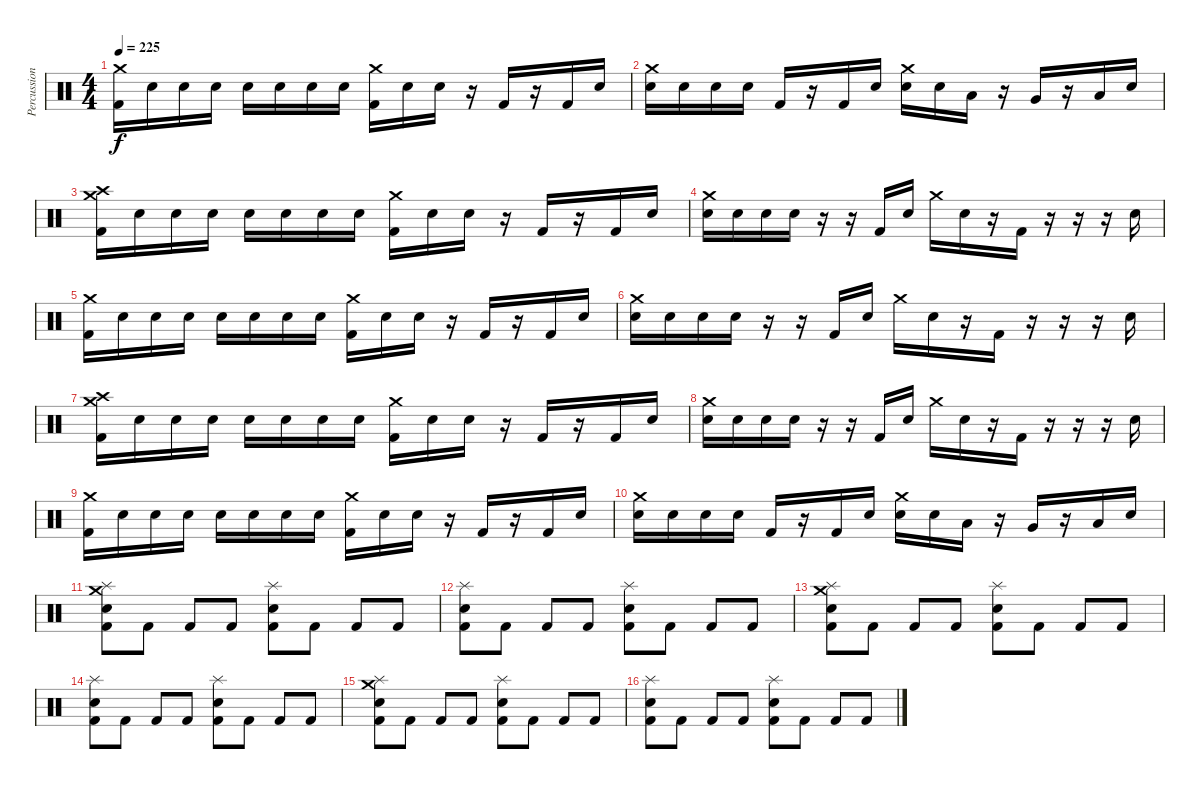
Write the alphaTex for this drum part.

\track ("Percussion" "Percussion") {instrument percussion}
\staff {score}
\articulation defaults
\ts (4 4)
\tempo 225
\clef neutral
\ks c
("Crash medium (hit)" "Kick (hit) 2").16{dy f} "Snare (hit)".16 "Snare (hit)".16 "Snare (hit)".16 "Snare (hit)".16 "Snare (hit)".16 "Snare (hit)".16 "Snare (hit)".16 ("Crash medium (hit)" "Kick (hit) 2").16 "Snare (hit)".16 "Snare (hit)".16 r.16 "Kick (hit) 2".16 r.16 "Kick (hit) 2".16 "Snare (hit)".16 |
("Crash medium (hit)" "Snare (hit) 2").16 "Snare (hit)".16 "Snare (hit)".16 "Snare (hit)".16 "Kick (hit) 2".16 r.16 "Kick (hit) 2".16 "Snare (hit)".16 ("Crash medium (hit)" "Snare (hit) 2").16 "Snare (hit)".16 "Low Tom (hit)".16 r.16 "Very Low Tom (hit)".16 r.16 "Low Floor Tom (hit)".16 "Snare (hit)".16 |
("Crash high (hit)" "Crash medium (hit)" "Kick (hit) 2").16 "Snare (hit)".16 "Snare (hit)".16 "Snare (hit)".16 "Snare (hit)".16 "Snare (hit)".16 "Snare (hit)".16 "Snare (hit)".16 ("Crash medium (hit)" "Kick (hit) 2").16 "Snare (hit)".16 "Snare (hit)".16 r.16 "Kick (hit) 2".16 r.16 "Kick (hit) 2".16 "Snare (hit)".16 |
("Crash medium (hit)" "Snare (hit) 2").16 "Snare (hit)".16 "Snare (hit)".16 "Snare (hit)".16 r.16 r.16 "Kick (hit) 2".16 "Snare (hit)".16 "Crash medium (hit)".16 "Snare (hit)".16 r.16 "Kick (hit) 2".16 r.16 r.16 r.16 "Snare (hit)".16 |
("Crash medium (hit)" "Kick (hit) 2").16 "Snare (hit)".16 "Snare (hit)".16 "Snare (hit)".16 "Snare (hit)".16 "Snare (hit)".16 "Snare (hit)".16 "Snare (hit)".16 ("Crash medium (hit)" "Kick (hit) 2").16 "Snare (hit)".16 "Snare (hit)".16 r.16 "Kick (hit) 2".16 r.16 "Kick (hit) 2".16 "Snare (hit)".16 |
("Crash medium (hit)" "Snare (hit) 2").16 "Snare (hit)".16 "Snare (hit)".16 "Snare (hit)".16 r.16 r.16 "Kick (hit) 2".16 "Snare (hit)".16 "Crash medium (hit)".16 "Snare (hit)".16 r.16 "Kick (hit) 2".16 r.16 r.16 r.16 "Snare (hit)".16 |
("Crash high (hit)" "Crash medium (hit)" "Kick (hit) 2").16 "Snare (hit)".16 "Snare (hit)".16 "Snare (hit)".16 "Snare (hit)".16 "Snare (hit)".16 "Snare (hit)".16 "Snare (hit)".16 ("Crash medium (hit)" "Kick (hit) 2").16 "Snare (hit)".16 "Snare (hit)".16 r.16 "Kick (hit) 2".16 r.16 "Kick (hit) 2".16 "Snare (hit)".16 |
("Crash medium (hit)" "Snare (hit) 2").16 "Snare (hit)".16 "Snare (hit)".16 "Snare (hit)".16 r.16 r.16 "Kick (hit) 2".16 "Snare (hit)".16 "Crash medium (hit)".16 "Snare (hit)".16 r.16 "Kick (hit) 2".16 r.16 r.16 r.16 "Snare (hit)".16 |
("Crash medium (hit)" "Kick (hit) 2").16 "Snare (hit)".16 "Snare (hit)".16 "Snare (hit)".16 "Snare (hit)".16 "Snare (hit)".16 "Snare (hit)".16 "Snare (hit)".16 ("Crash medium (hit)" "Kick (hit) 2").16 "Snare (hit)".16 "Snare (hit)".16 r.16 "Kick (hit) 2".16 r.16 "Kick (hit) 2".16 "Snare (hit)".16 |
("Crash medium (hit)" "Snare (hit) 2").16 "Snare (hit)".16 "Snare (hit)".16 "Snare (hit)".16 "Kick (hit) 2".16 r.16 "Kick (hit) 2".16 "Snare (hit)".16 ("Crash medium (hit)" "Snare (hit) 2").16 "Snare (hit)".16 "Low Tom (hit)".16 r.16 "Very Low Tom (hit)".16 r.16 "Low Floor Tom (hit)".16 "Snare (hit)".16 |
("Crash medium (hit)" "Splash (hit)" "Snare (hit) 2" "Kick (hit) 2").8 "Kick (hit) 2".8 "Kick (hit) 2".8 "Kick (hit) 2".8 ("Splash (hit)" "Snare (hit) 2" "Kick (hit) 2").8 "Kick (hit) 2".8 "Kick (hit) 2".8 "Kick (hit) 2".8 |
("Splash (hit)" "Snare (hit) 2" "Kick (hit) 2").8 "Kick (hit) 2".8 "Kick (hit) 2".8 "Kick (hit) 2".8 ("Splash (hit)" "Snare (hit) 2" "Kick (hit) 2").8 "Kick (hit) 2".8 "Kick (hit) 2".8 "Kick (hit) 2".8 |
("Crash medium (hit)" "Splash (hit)" "Snare (hit) 2" "Kick (hit) 2").8 "Kick (hit) 2".8 "Kick (hit) 2".8 "Kick (hit) 2".8 ("Splash (hit)" "Snare (hit) 2" "Kick (hit) 2").8 "Kick (hit) 2".8 "Kick (hit) 2".8 "Kick (hit) 2".8 |
("Splash (hit)" "Snare (hit) 2" "Kick (hit) 2").8 "Kick (hit) 2".8 "Kick (hit) 2".8 "Kick (hit) 2".8 ("Splash (hit)" "Snare (hit) 2" "Kick (hit) 2").8 "Kick (hit) 2".8 "Kick (hit) 2".8 "Kick (hit) 2".8 |
("Crash medium (hit)" "Splash (hit)" "Snare (hit) 2" "Kick (hit) 2").8 "Kick (hit) 2".8 "Kick (hit) 2".8 "Kick (hit) 2".8 ("Splash (hit)" "Snare (hit) 2" "Kick (hit) 2").8 "Kick (hit) 2".8 "Kick (hit) 2".8 "Kick (hit) 2".8 |
("Splash (hit)" "Snare (hit) 2" "Kick (hit) 2").8 "Kick (hit) 2".8 "Kick (hit) 2".8 "Kick (hit) 2".8 ("Splash (hit)" "Snare (hit) 2" "Kick (hit) 2").8 "Kick (hit) 2".8 "Kick (hit) 2".8 "Kick (hit) 2".8
